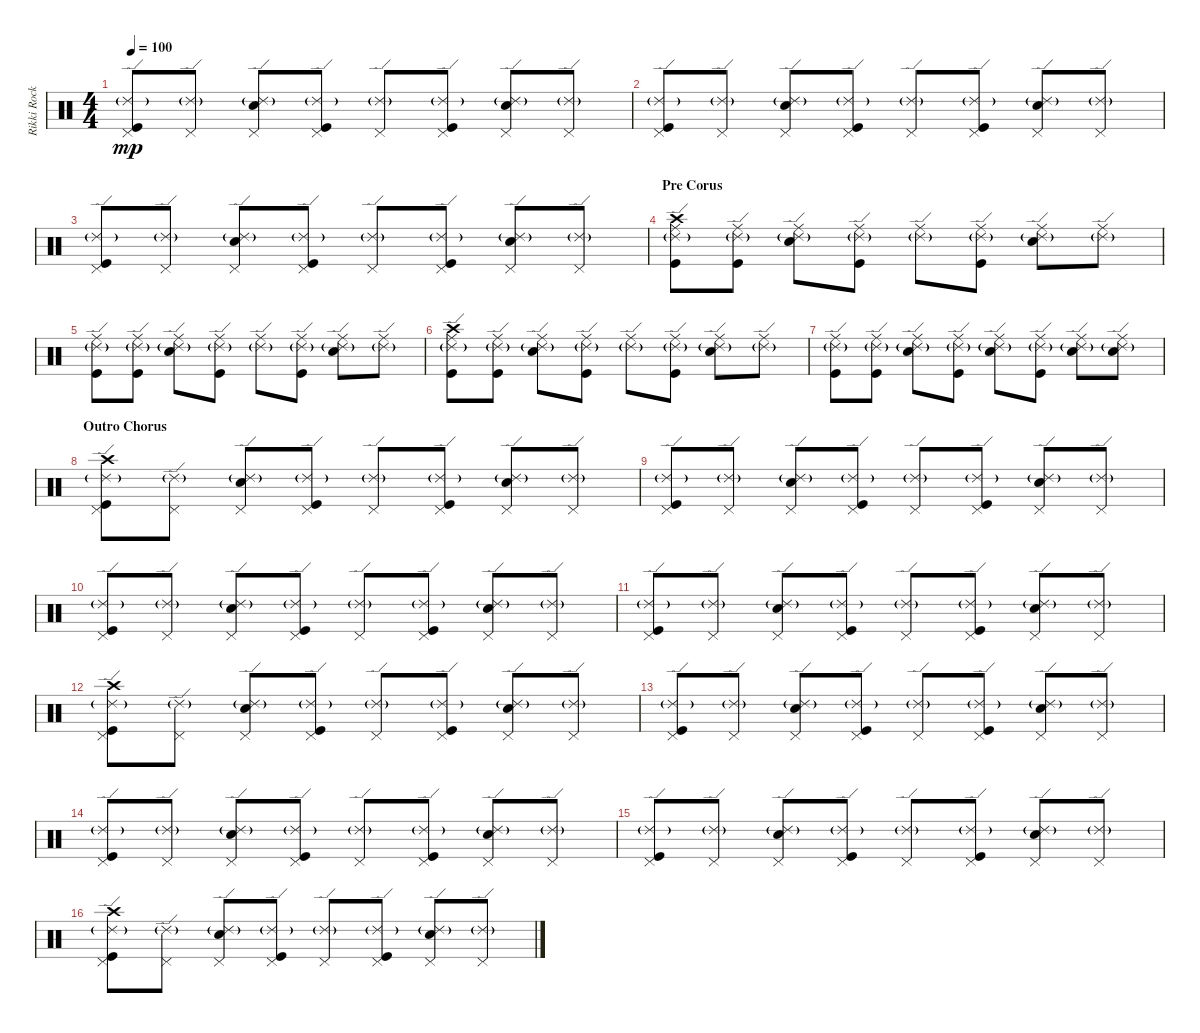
\track ("Rikki Rockett Drums" "Rikki Rock") {instrument percussion}
\staff {score}
\articulation defaults
\ts (4 4)
\tempo 100
\clef neutral
\ks c
("Ride (edge) 2"{g} "Pedal Hi-Hat (hit)" "Kick (hit)").8{dy mp} ("Ride (edge) 2"{g} "Pedal Hi-Hat (hit)").8 ("Ride (edge) 2"{g} "Pedal Hi-Hat (hit)" "Snare (hit) 2").8 ("Ride (edge) 2"{g} "Pedal Hi-Hat (hit)" "Kick (hit)").8 ("Ride (edge) 2"{g} "Pedal Hi-Hat (hit)").8 ("Ride (edge) 2"{g} "Pedal Hi-Hat (hit)" "Kick (hit)").8 ("Ride (edge) 2"{g} "Pedal Hi-Hat (hit)" "Snare (hit) 2").8 ("Ride (edge) 2"{g} "Pedal Hi-Hat (hit)").8 |
("Ride (edge) 2"{g} "Pedal Hi-Hat (hit)" "Kick (hit)").8 ("Ride (edge) 2"{g} "Pedal Hi-Hat (hit)").8 ("Ride (edge) 2"{g} "Pedal Hi-Hat (hit)" "Snare (hit) 2").8 ("Ride (edge) 2"{g} "Pedal Hi-Hat (hit)" "Kick (hit)").8 ("Ride (edge) 2"{g} "Pedal Hi-Hat (hit)").8 ("Ride (edge) 2"{g} "Pedal Hi-Hat (hit)" "Kick (hit)").8 ("Ride (edge) 2"{g} "Pedal Hi-Hat (hit)" "Snare (hit) 2").8 ("Ride (edge) 2"{g} "Pedal Hi-Hat (hit)").8 |
("Ride (edge) 2"{g} "Pedal Hi-Hat (hit)" "Kick (hit)").8 ("Ride (edge) 2"{g} "Pedal Hi-Hat (hit)").8 ("Ride (edge) 2"{g} "Pedal Hi-Hat (hit)" "Snare (hit) 2").8 ("Ride (edge) 2"{g} "Pedal Hi-Hat (hit)" "Kick (hit)").8 ("Ride (edge) 2"{g} "Pedal Hi-Hat (hit)").8 ("Ride (edge) 2"{g} "Pedal Hi-Hat (hit)" "Kick (hit)").8 ("Ride (edge) 2"{g} "Pedal Hi-Hat (hit)" "Snare (hit) 2").8 ("Ride (edge) 2"{g} "Pedal Hi-Hat (hit)").8 |
\section ("" "Pre Corus")
("Ride (edge) 2"{g} "Ride (middle)" "Crash high (hit)" "Kick (hit)").8 ("Ride (edge) 2"{g} "Ride (middle)" "Kick (hit)").8 ("Ride (edge) 2"{g} "Ride (middle)" "Snare (hit) 2").8 ("Ride (edge) 2"{g} "Ride (middle)" "Kick (hit)").8 ("Ride (edge) 2"{g} "Ride (middle)").8 ("Ride (edge) 2"{g} "Ride (middle)" "Kick (hit)").8 ("Ride (edge) 2"{g} "Ride (middle)" "Snare (hit) 2").8 ("Ride (edge) 2"{g} "Ride (middle)").8 |
("Ride (edge) 2"{g} "Ride (middle)" "Kick (hit)").8 ("Ride (edge) 2"{g} "Ride (middle)" "Kick (hit)").8 ("Ride (edge) 2"{g} "Ride (middle)" "Snare (hit) 2").8 ("Ride (edge) 2"{g} "Ride (middle)" "Kick (hit)").8 ("Ride (edge) 2"{g} "Ride (middle)").8 ("Ride (edge) 2"{g} "Ride (middle)" "Kick (hit)").8 ("Ride (edge) 2"{g} "Ride (middle)" "Snare (hit) 2").8 ("Ride (edge) 2"{g} "Ride (middle)").8 |
("Ride (edge) 2"{g} "Ride (middle)" "Crash high (hit)" "Kick (hit)").8 ("Ride (edge) 2"{g} "Ride (middle)" "Kick (hit)").8 ("Ride (edge) 2"{g} "Ride (middle)" "Snare (hit) 2").8 ("Ride (edge) 2"{g} "Ride (middle)" "Kick (hit)").8 ("Ride (edge) 2"{g} "Ride (middle)").8 ("Ride (edge) 2"{g} "Ride (middle)" "Kick (hit)").8 ("Ride (edge) 2"{g} "Ride (middle)" "Snare (hit) 2").8 ("Ride (edge) 2"{g} "Ride (middle)").8 |
("Ride (edge) 2"{g} "Ride (middle)" "Kick (hit)").8 ("Ride (edge) 2"{g} "Ride (middle)" "Kick (hit)").8 ("Ride (edge) 2"{g} "Ride (middle)" "Snare (hit) 2").8 ("Ride (edge) 2"{g} "Ride (middle)" "Kick (hit)").8 ("Ride (edge) 2"{g} "Ride (middle)" "Snare (hit) 2").8 ("Ride (edge) 2"{g} "Ride (middle)" "Kick (hit)").8 ("Ride (edge) 2"{g} "Ride (middle)" "Snare (hit) 2").8 ("Ride (edge) 2"{g} "Ride (middle)" "Snare (hit) 2").8 |
\section ("" "Outro Chorus")
("Ride (edge) 2"{g} "Pedal Hi-Hat (hit)" "Crash high (hit)" "Kick (hit)").8 ("Ride (edge) 2"{g} "Pedal Hi-Hat (hit)").8 ("Ride (edge) 2"{g} "Pedal Hi-Hat (hit)" "Snare (hit) 2").8 ("Ride (edge) 2"{g} "Pedal Hi-Hat (hit)" "Kick (hit)").8 ("Ride (edge) 2"{g} "Pedal Hi-Hat (hit)").8 ("Ride (edge) 2"{g} "Pedal Hi-Hat (hit)" "Kick (hit)").8 ("Ride (edge) 2"{g} "Pedal Hi-Hat (hit)" "Snare (hit) 2").8 ("Ride (edge) 2"{g} "Pedal Hi-Hat (hit)").8 |
("Ride (edge) 2"{g} "Pedal Hi-Hat (hit)" "Kick (hit)").8 ("Ride (edge) 2"{g} "Pedal Hi-Hat (hit)").8 ("Ride (edge) 2"{g} "Pedal Hi-Hat (hit)" "Snare (hit) 2").8 ("Ride (edge) 2"{g} "Pedal Hi-Hat (hit)" "Kick (hit)").8 ("Ride (edge) 2"{g} "Pedal Hi-Hat (hit)").8 ("Ride (edge) 2"{g} "Pedal Hi-Hat (hit)" "Kick (hit)").8 ("Ride (edge) 2"{g} "Pedal Hi-Hat (hit)" "Snare (hit) 2").8 ("Ride (edge) 2"{g} "Pedal Hi-Hat (hit)").8 |
("Ride (edge) 2"{g} "Pedal Hi-Hat (hit)" "Kick (hit)").8 ("Ride (edge) 2"{g} "Pedal Hi-Hat (hit)").8 ("Ride (edge) 2"{g} "Pedal Hi-Hat (hit)" "Snare (hit) 2").8 ("Ride (edge) 2"{g} "Pedal Hi-Hat (hit)" "Kick (hit)").8 ("Ride (edge) 2"{g} "Pedal Hi-Hat (hit)").8 ("Ride (edge) 2"{g} "Pedal Hi-Hat (hit)" "Kick (hit)").8 ("Ride (edge) 2"{g} "Pedal Hi-Hat (hit)" "Snare (hit) 2").8 ("Ride (edge) 2"{g} "Pedal Hi-Hat (hit)").8 |
("Ride (edge) 2"{g} "Pedal Hi-Hat (hit)" "Kick (hit)").8 ("Ride (edge) 2"{g} "Pedal Hi-Hat (hit)").8 ("Ride (edge) 2"{g} "Pedal Hi-Hat (hit)" "Snare (hit) 2").8 ("Ride (edge) 2"{g} "Pedal Hi-Hat (hit)" "Kick (hit)").8 ("Ride (edge) 2"{g} "Pedal Hi-Hat (hit)").8 ("Ride (edge) 2"{g} "Pedal Hi-Hat (hit)" "Kick (hit)").8 ("Ride (edge) 2"{g} "Pedal Hi-Hat (hit)" "Snare (hit) 2").8 ("Ride (edge) 2"{g} "Pedal Hi-Hat (hit)").8 |
("Ride (edge) 2"{g} "Pedal Hi-Hat (hit)" "Crash high (hit)" "Kick (hit)").8 ("Ride (edge) 2"{g} "Pedal Hi-Hat (hit)").8 ("Ride (edge) 2"{g} "Pedal Hi-Hat (hit)" "Snare (hit) 2").8 ("Ride (edge) 2"{g} "Pedal Hi-Hat (hit)" "Kick (hit)").8 ("Ride (edge) 2"{g} "Pedal Hi-Hat (hit)").8 ("Ride (edge) 2"{g} "Pedal Hi-Hat (hit)" "Kick (hit)").8 ("Ride (edge) 2"{g} "Pedal Hi-Hat (hit)" "Snare (hit) 2").8 ("Ride (edge) 2"{g} "Pedal Hi-Hat (hit)").8 |
("Ride (edge) 2"{g} "Pedal Hi-Hat (hit)" "Kick (hit)").8 ("Ride (edge) 2"{g} "Pedal Hi-Hat (hit)").8 ("Ride (edge) 2"{g} "Pedal Hi-Hat (hit)" "Snare (hit) 2").8 ("Ride (edge) 2"{g} "Pedal Hi-Hat (hit)" "Kick (hit)").8 ("Ride (edge) 2"{g} "Pedal Hi-Hat (hit)").8 ("Ride (edge) 2"{g} "Pedal Hi-Hat (hit)" "Kick (hit)").8 ("Ride (edge) 2"{g} "Pedal Hi-Hat (hit)" "Snare (hit) 2").8 ("Ride (edge) 2"{g} "Pedal Hi-Hat (hit)").8 |
("Ride (edge) 2"{g} "Pedal Hi-Hat (hit)" "Kick (hit)").8 ("Ride (edge) 2"{g} "Pedal Hi-Hat (hit)").8 ("Ride (edge) 2"{g} "Pedal Hi-Hat (hit)" "Snare (hit) 2").8 ("Ride (edge) 2"{g} "Pedal Hi-Hat (hit)" "Kick (hit)").8 ("Ride (edge) 2"{g} "Pedal Hi-Hat (hit)").8 ("Ride (edge) 2"{g} "Pedal Hi-Hat (hit)" "Kick (hit)").8 ("Ride (edge) 2"{g} "Pedal Hi-Hat (hit)" "Snare (hit) 2").8 ("Ride (edge) 2"{g} "Pedal Hi-Hat (hit)").8 |
("Ride (edge) 2"{g} "Pedal Hi-Hat (hit)" "Kick (hit)").8 ("Ride (edge) 2"{g} "Pedal Hi-Hat (hit)").8 ("Ride (edge) 2"{g} "Pedal Hi-Hat (hit)" "Snare (hit) 2").8 ("Ride (edge) 2"{g} "Pedal Hi-Hat (hit)" "Kick (hit)").8 ("Ride (edge) 2"{g} "Pedal Hi-Hat (hit)").8 ("Ride (edge) 2"{g} "Pedal Hi-Hat (hit)" "Kick (hit)").8 ("Ride (edge) 2"{g} "Pedal Hi-Hat (hit)" "Snare (hit) 2").8 ("Ride (edge) 2"{g} "Pedal Hi-Hat (hit)").8 |
("Ride (edge) 2"{g} "Pedal Hi-Hat (hit)" "Crash high (hit)" "Kick (hit)").8 ("Ride (edge) 2"{g} "Pedal Hi-Hat (hit)").8 ("Ride (edge) 2"{g} "Pedal Hi-Hat (hit)" "Snare (hit) 2").8 ("Ride (edge) 2"{g} "Pedal Hi-Hat (hit)" "Kick (hit)").8 ("Ride (edge) 2"{g} "Pedal Hi-Hat (hit)").8 ("Ride (edge) 2"{g} "Pedal Hi-Hat (hit)" "Kick (hit)").8 ("Ride (edge) 2"{g} "Pedal Hi-Hat (hit)" "Snare (hit) 2").8 ("Ride (edge) 2"{g} "Pedal Hi-Hat (hit)").8
